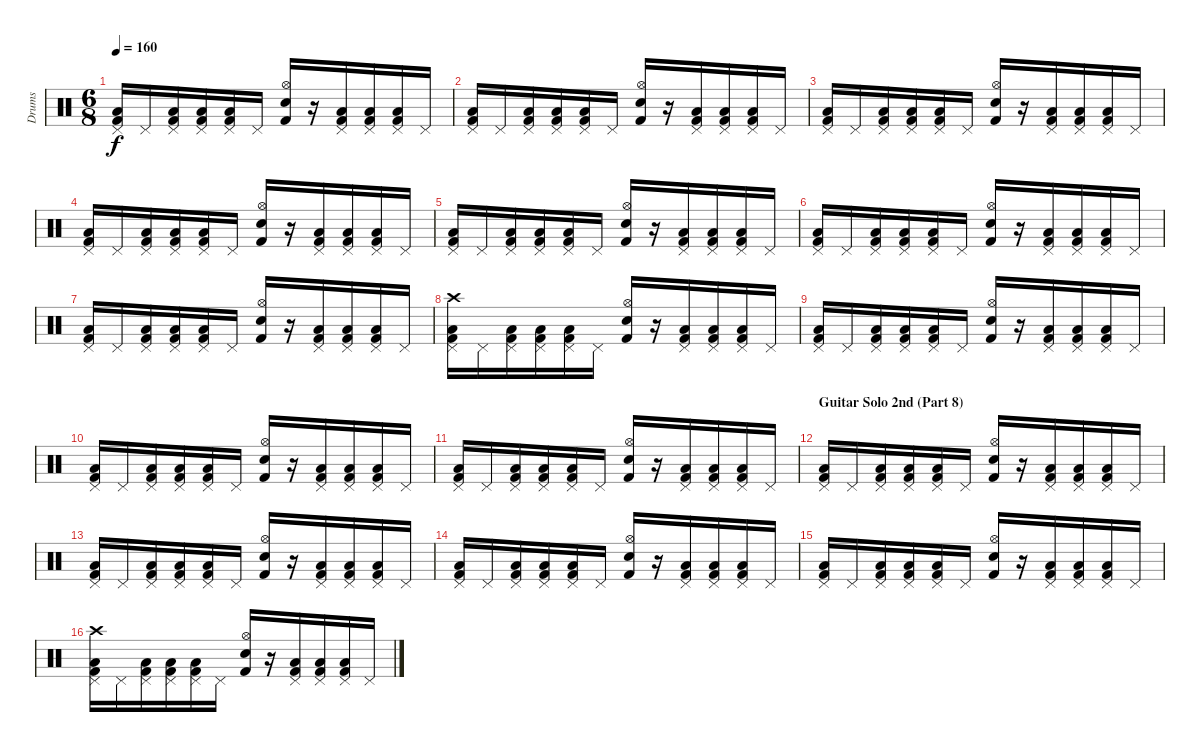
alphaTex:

\track ("Drums" "Drums") {instrument percussion}
\staff {score}
\articulation defaults
\ts (6 8)
\tempo 160
\clef neutral
\ks c
("Pedal Hi-Hat (hit)" "Low Floor Tom (hit)" "Kick (hit) 2").16{dy f} "Pedal Hi-Hat (hit)".16 ("Pedal Hi-Hat (hit)" "Low Floor Tom (hit)" "Kick (hit) 2").16 ("Pedal Hi-Hat (hit)" "Low Floor Tom (hit)" "Kick (hit) 2").16 ("Pedal Hi-Hat (hit)" "Low Floor Tom (hit)" "Kick (hit) 2").16 "Pedal Hi-Hat (hit)".16 ("Hi-Hat (open)" "Snare (hit) 2" "Kick (hit) 2").16 r.16 ("Pedal Hi-Hat (hit)" "Low Floor Tom (hit)" "Kick (hit) 2").16 ("Pedal Hi-Hat (hit)" "Low Floor Tom (hit)" "Kick (hit) 2").16 ("Pedal Hi-Hat (hit)" "Low Floor Tom (hit)" "Kick (hit) 2").16 "Pedal Hi-Hat (hit)".16 |
("Pedal Hi-Hat (hit)" "Low Floor Tom (hit)" "Kick (hit) 2").16 "Pedal Hi-Hat (hit)".16 ("Pedal Hi-Hat (hit)" "Low Floor Tom (hit)" "Kick (hit) 2").16 ("Pedal Hi-Hat (hit)" "Low Floor Tom (hit)" "Kick (hit) 2").16 ("Pedal Hi-Hat (hit)" "Low Floor Tom (hit)" "Kick (hit) 2").16 "Pedal Hi-Hat (hit)".16 ("Hi-Hat (open)" "Snare (hit) 2" "Kick (hit) 2").16 r.16 ("Pedal Hi-Hat (hit)" "Low Floor Tom (hit)" "Kick (hit) 2").16 ("Pedal Hi-Hat (hit)" "Low Floor Tom (hit)" "Kick (hit) 2").16 ("Pedal Hi-Hat (hit)" "Low Floor Tom (hit)" "Kick (hit) 2").16 "Pedal Hi-Hat (hit)".16 |
("Pedal Hi-Hat (hit)" "Low Floor Tom (hit)" "Kick (hit) 2").16 "Pedal Hi-Hat (hit)".16 ("Pedal Hi-Hat (hit)" "Low Floor Tom (hit)" "Kick (hit) 2").16 ("Pedal Hi-Hat (hit)" "Low Floor Tom (hit)" "Kick (hit) 2").16 ("Pedal Hi-Hat (hit)" "Low Floor Tom (hit)" "Kick (hit) 2").16 "Pedal Hi-Hat (hit)".16 ("Hi-Hat (open)" "Snare (hit) 2" "Kick (hit) 2").16 r.16 ("Pedal Hi-Hat (hit)" "Low Floor Tom (hit)" "Kick (hit) 2").16 ("Pedal Hi-Hat (hit)" "Low Floor Tom (hit)" "Kick (hit) 2").16 ("Pedal Hi-Hat (hit)" "Low Floor Tom (hit)" "Kick (hit) 2").16 "Pedal Hi-Hat (hit)".16 |
("Pedal Hi-Hat (hit)" "Low Floor Tom (hit)" "Kick (hit) 2").16 "Pedal Hi-Hat (hit)".16 ("Pedal Hi-Hat (hit)" "Low Floor Tom (hit)" "Kick (hit) 2").16 ("Pedal Hi-Hat (hit)" "Low Floor Tom (hit)" "Kick (hit) 2").16 ("Pedal Hi-Hat (hit)" "Low Floor Tom (hit)" "Kick (hit) 2").16 "Pedal Hi-Hat (hit)".16 ("Hi-Hat (open)" "Snare (hit) 2" "Kick (hit) 2").16 r.16 ("Pedal Hi-Hat (hit)" "Low Floor Tom (hit)" "Kick (hit) 2").16 ("Pedal Hi-Hat (hit)" "Low Floor Tom (hit)" "Kick (hit) 2").16 ("Pedal Hi-Hat (hit)" "Low Floor Tom (hit)" "Kick (hit) 2").16 "Pedal Hi-Hat (hit)".16 |
("Pedal Hi-Hat (hit)" "Low Floor Tom (hit)" "Kick (hit) 2").16 "Pedal Hi-Hat (hit)".16 ("Pedal Hi-Hat (hit)" "Low Floor Tom (hit)" "Kick (hit) 2").16 ("Pedal Hi-Hat (hit)" "Low Floor Tom (hit)" "Kick (hit) 2").16 ("Pedal Hi-Hat (hit)" "Low Floor Tom (hit)" "Kick (hit) 2").16 "Pedal Hi-Hat (hit)".16 ("Hi-Hat (open)" "Snare (hit) 2" "Kick (hit) 2").16 r.16 ("Pedal Hi-Hat (hit)" "Low Floor Tom (hit)" "Kick (hit) 2").16 ("Pedal Hi-Hat (hit)" "Low Floor Tom (hit)" "Kick (hit) 2").16 ("Pedal Hi-Hat (hit)" "Low Floor Tom (hit)" "Kick (hit) 2").16 "Pedal Hi-Hat (hit)".16 |
("Pedal Hi-Hat (hit)" "Low Floor Tom (hit)" "Kick (hit) 2").16 "Pedal Hi-Hat (hit)".16 ("Pedal Hi-Hat (hit)" "Low Floor Tom (hit)" "Kick (hit) 2").16 ("Pedal Hi-Hat (hit)" "Low Floor Tom (hit)" "Kick (hit) 2").16 ("Pedal Hi-Hat (hit)" "Low Floor Tom (hit)" "Kick (hit) 2").16 "Pedal Hi-Hat (hit)".16 ("Hi-Hat (open)" "Snare (hit) 2" "Kick (hit) 2").16 r.16 ("Pedal Hi-Hat (hit)" "Low Floor Tom (hit)" "Kick (hit) 2").16 ("Pedal Hi-Hat (hit)" "Low Floor Tom (hit)" "Kick (hit) 2").16 ("Pedal Hi-Hat (hit)" "Low Floor Tom (hit)" "Kick (hit) 2").16 "Pedal Hi-Hat (hit)".16 |
("Pedal Hi-Hat (hit)" "Low Floor Tom (hit)" "Kick (hit) 2").16 "Pedal Hi-Hat (hit)".16 ("Pedal Hi-Hat (hit)" "Low Floor Tom (hit)" "Kick (hit) 2").16 ("Pedal Hi-Hat (hit)" "Low Floor Tom (hit)" "Kick (hit) 2").16 ("Pedal Hi-Hat (hit)" "Low Floor Tom (hit)" "Kick (hit) 2").16 "Pedal Hi-Hat (hit)".16 ("Hi-Hat (open)" "Snare (hit) 2" "Kick (hit) 2").16 r.16 ("Pedal Hi-Hat (hit)" "Low Floor Tom (hit)" "Kick (hit) 2").16 ("Pedal Hi-Hat (hit)" "Low Floor Tom (hit)" "Kick (hit) 2").16 ("Pedal Hi-Hat (hit)" "Low Floor Tom (hit)" "Kick (hit) 2").16 "Pedal Hi-Hat (hit)".16 |
("Crash high (hit)" "Pedal Hi-Hat (hit)" "Low Floor Tom (hit)" "Kick (hit) 2").16 "Pedal Hi-Hat (hit)".16 ("Pedal Hi-Hat (hit)" "Low Floor Tom (hit)" "Kick (hit) 2").16 ("Pedal Hi-Hat (hit)" "Low Floor Tom (hit)" "Kick (hit) 2").16 ("Pedal Hi-Hat (hit)" "Low Floor Tom (hit)" "Kick (hit) 2").16 "Pedal Hi-Hat (hit)".16 ("Hi-Hat (open)" "Snare (hit) 2" "Kick (hit) 2").16 r.16 ("Pedal Hi-Hat (hit)" "Low Floor Tom (hit)" "Kick (hit) 2").16 ("Pedal Hi-Hat (hit)" "Low Floor Tom (hit)" "Kick (hit) 2").16 ("Pedal Hi-Hat (hit)" "Low Floor Tom (hit)" "Kick (hit) 2").16 "Pedal Hi-Hat (hit)".16 |
("Pedal Hi-Hat (hit)" "Low Floor Tom (hit)" "Kick (hit) 2").16 "Pedal Hi-Hat (hit)".16 ("Pedal Hi-Hat (hit)" "Low Floor Tom (hit)" "Kick (hit) 2").16 ("Pedal Hi-Hat (hit)" "Low Floor Tom (hit)" "Kick (hit) 2").16 ("Pedal Hi-Hat (hit)" "Low Floor Tom (hit)" "Kick (hit) 2").16 "Pedal Hi-Hat (hit)".16 ("Hi-Hat (open)" "Snare (hit) 2" "Kick (hit) 2").16 r.16 ("Pedal Hi-Hat (hit)" "Low Floor Tom (hit)" "Kick (hit) 2").16 ("Pedal Hi-Hat (hit)" "Low Floor Tom (hit)" "Kick (hit) 2").16 ("Pedal Hi-Hat (hit)" "Low Floor Tom (hit)" "Kick (hit) 2").16 "Pedal Hi-Hat (hit)".16 |
("Pedal Hi-Hat (hit)" "Low Floor Tom (hit)" "Kick (hit) 2").16 "Pedal Hi-Hat (hit)".16 ("Pedal Hi-Hat (hit)" "Low Floor Tom (hit)" "Kick (hit) 2").16 ("Pedal Hi-Hat (hit)" "Low Floor Tom (hit)" "Kick (hit) 2").16 ("Pedal Hi-Hat (hit)" "Low Floor Tom (hit)" "Kick (hit) 2").16 "Pedal Hi-Hat (hit)".16 ("Hi-Hat (open)" "Snare (hit) 2" "Kick (hit) 2").16 r.16 ("Pedal Hi-Hat (hit)" "Low Floor Tom (hit)" "Kick (hit) 2").16 ("Pedal Hi-Hat (hit)" "Low Floor Tom (hit)" "Kick (hit) 2").16 ("Pedal Hi-Hat (hit)" "Low Floor Tom (hit)" "Kick (hit) 2").16 "Pedal Hi-Hat (hit)".16 |
("Pedal Hi-Hat (hit)" "Low Floor Tom (hit)" "Kick (hit) 2").16 "Pedal Hi-Hat (hit)".16 ("Pedal Hi-Hat (hit)" "Low Floor Tom (hit)" "Kick (hit) 2").16 ("Pedal Hi-Hat (hit)" "Low Floor Tom (hit)" "Kick (hit) 2").16 ("Pedal Hi-Hat (hit)" "Low Floor Tom (hit)" "Kick (hit) 2").16 "Pedal Hi-Hat (hit)".16 ("Hi-Hat (open)" "Snare (hit) 2" "Kick (hit) 2").16 r.16 ("Pedal Hi-Hat (hit)" "Low Floor Tom (hit)" "Kick (hit) 2").16 ("Pedal Hi-Hat (hit)" "Low Floor Tom (hit)" "Kick (hit) 2").16 ("Pedal Hi-Hat (hit)" "Low Floor Tom (hit)" "Kick (hit) 2").16 "Pedal Hi-Hat (hit)".16 |
\section ("" "Guitar Solo 2nd (Part 8)")
("Pedal Hi-Hat (hit)" "Low Floor Tom (hit)" "Kick (hit) 2").16 "Pedal Hi-Hat (hit)".16 ("Pedal Hi-Hat (hit)" "Low Floor Tom (hit)" "Kick (hit) 2").16 ("Pedal Hi-Hat (hit)" "Low Floor Tom (hit)" "Kick (hit) 2").16 ("Pedal Hi-Hat (hit)" "Low Floor Tom (hit)" "Kick (hit) 2").16 "Pedal Hi-Hat (hit)".16 ("Hi-Hat (open)" "Snare (hit) 2" "Kick (hit) 2").16 r.16 ("Pedal Hi-Hat (hit)" "Low Floor Tom (hit)" "Kick (hit) 2").16 ("Pedal Hi-Hat (hit)" "Low Floor Tom (hit)" "Kick (hit) 2").16 ("Pedal Hi-Hat (hit)" "Low Floor Tom (hit)" "Kick (hit) 2").16 "Pedal Hi-Hat (hit)".16 |
("Pedal Hi-Hat (hit)" "Low Floor Tom (hit)" "Kick (hit) 2").16 "Pedal Hi-Hat (hit)".16 ("Pedal Hi-Hat (hit)" "Low Floor Tom (hit)" "Kick (hit) 2").16 ("Pedal Hi-Hat (hit)" "Low Floor Tom (hit)" "Kick (hit) 2").16 ("Pedal Hi-Hat (hit)" "Low Floor Tom (hit)" "Kick (hit) 2").16 "Pedal Hi-Hat (hit)".16 ("Hi-Hat (open)" "Snare (hit) 2" "Kick (hit) 2").16 r.16 ("Pedal Hi-Hat (hit)" "Low Floor Tom (hit)" "Kick (hit) 2").16 ("Pedal Hi-Hat (hit)" "Low Floor Tom (hit)" "Kick (hit) 2").16 ("Pedal Hi-Hat (hit)" "Low Floor Tom (hit)" "Kick (hit) 2").16 "Pedal Hi-Hat (hit)".16 |
("Pedal Hi-Hat (hit)" "Low Floor Tom (hit)" "Kick (hit) 2").16 "Pedal Hi-Hat (hit)".16 ("Pedal Hi-Hat (hit)" "Low Floor Tom (hit)" "Kick (hit) 2").16 ("Pedal Hi-Hat (hit)" "Low Floor Tom (hit)" "Kick (hit) 2").16 ("Pedal Hi-Hat (hit)" "Low Floor Tom (hit)" "Kick (hit) 2").16 "Pedal Hi-Hat (hit)".16 ("Hi-Hat (open)" "Snare (hit) 2" "Kick (hit) 2").16 r.16 ("Pedal Hi-Hat (hit)" "Low Floor Tom (hit)" "Kick (hit) 2").16 ("Pedal Hi-Hat (hit)" "Low Floor Tom (hit)" "Kick (hit) 2").16 ("Pedal Hi-Hat (hit)" "Low Floor Tom (hit)" "Kick (hit) 2").16 "Pedal Hi-Hat (hit)".16 |
("Pedal Hi-Hat (hit)" "Low Floor Tom (hit)" "Kick (hit) 2").16 "Pedal Hi-Hat (hit)".16 ("Pedal Hi-Hat (hit)" "Low Floor Tom (hit)" "Kick (hit) 2").16 ("Pedal Hi-Hat (hit)" "Low Floor Tom (hit)" "Kick (hit) 2").16 ("Pedal Hi-Hat (hit)" "Low Floor Tom (hit)" "Kick (hit) 2").16 "Pedal Hi-Hat (hit)".16 ("Hi-Hat (open)" "Snare (hit) 2" "Kick (hit) 2").16 r.16 ("Pedal Hi-Hat (hit)" "Low Floor Tom (hit)" "Kick (hit) 2").16 ("Pedal Hi-Hat (hit)" "Low Floor Tom (hit)" "Kick (hit) 2").16 ("Pedal Hi-Hat (hit)" "Low Floor Tom (hit)" "Kick (hit) 2").16 "Pedal Hi-Hat (hit)".16 |
("Crash high (hit)" "Pedal Hi-Hat (hit)" "Low Floor Tom (hit)" "Kick (hit) 2").16 "Pedal Hi-Hat (hit)".16 ("Pedal Hi-Hat (hit)" "Low Floor Tom (hit)" "Kick (hit) 2").16 ("Pedal Hi-Hat (hit)" "Low Floor Tom (hit)" "Kick (hit) 2").16 ("Pedal Hi-Hat (hit)" "Low Floor Tom (hit)" "Kick (hit) 2").16 "Pedal Hi-Hat (hit)".16 ("Hi-Hat (open)" "Snare (hit) 2" "Kick (hit) 2").16 r.16 ("Pedal Hi-Hat (hit)" "Low Floor Tom (hit)" "Kick (hit) 2").16 ("Pedal Hi-Hat (hit)" "Low Floor Tom (hit)" "Kick (hit) 2").16 ("Pedal Hi-Hat (hit)" "Low Floor Tom (hit)" "Kick (hit) 2").16 "Pedal Hi-Hat (hit)".16
